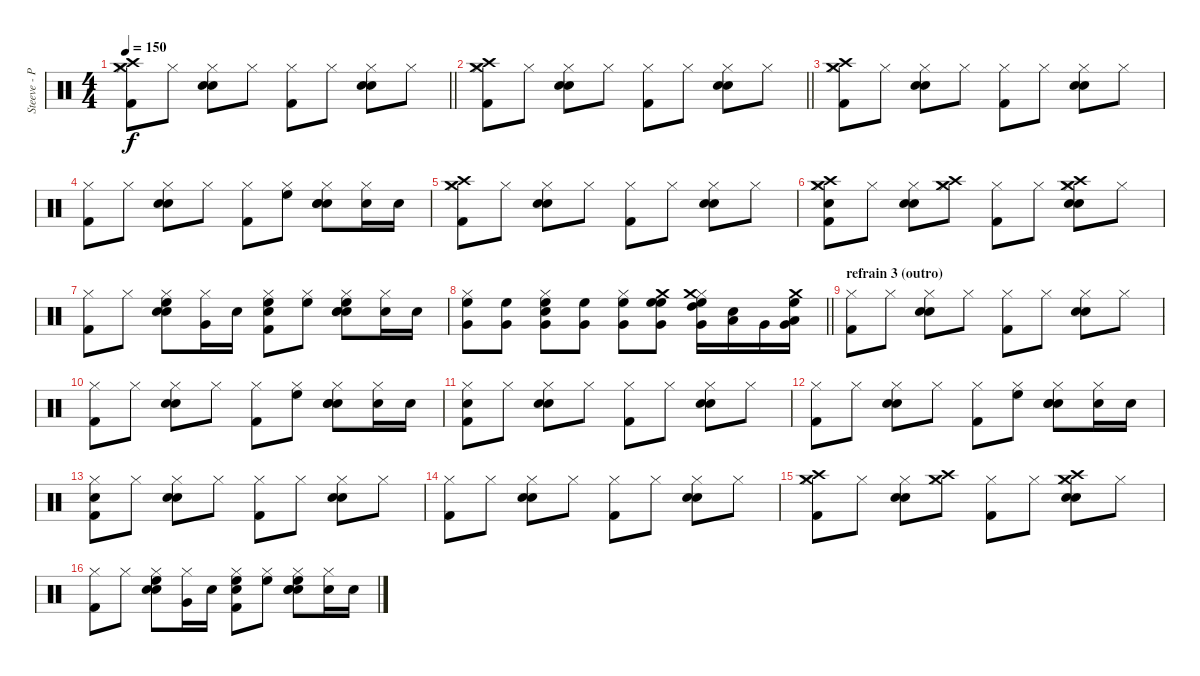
\track ("Steeve - Percussions" "Steeve - P") {instrument percussion}
\staff {score}
\articulation defaults
\ts (4 4)
\tempo 150
\clef neutral
\barLineRight lightlight
\ks c
("Hi-Hat (closed)" "Kick (hit) 2" "Crash medium (hit)" "Crash high (hit)").8{dy f} "Hi-Hat (closed)".8 ("Hi-Hat (closed)" "Snare (hit) 2" "Electric Snare (hit)").8 "Hi-Hat (closed)".8 ("Hi-Hat (closed)" "Kick (hit) 2").8 "Hi-Hat (closed)".8 ("Hi-Hat (closed)" "Snare (hit) 2" "Electric Snare (hit)").8 "Hi-Hat (closed)".8 |
\barLineRight lightlight
("Hi-Hat (closed)" "Kick (hit) 2" "Crash medium (hit)" "Crash high (hit)").8 "Hi-Hat (closed)".8 ("Hi-Hat (closed)" "Snare (hit) 2" "Electric Snare (hit)").8 "Hi-Hat (closed)".8 ("Hi-Hat (closed)" "Kick (hit) 2").8 "Hi-Hat (closed)".8 ("Hi-Hat (closed)" "Snare (hit) 2" "Electric Snare (hit)").8 "Hi-Hat (closed)".8 |
("Hi-Hat (closed)" "Kick (hit) 2" "Crash medium (hit)" "Crash high (hit)").8 "Hi-Hat (closed)".8 ("Hi-Hat (closed)" "Snare (hit) 2" "Electric Snare (hit)").8 "Hi-Hat (closed)".8 ("Hi-Hat (closed)" "Kick (hit) 2").8 "Hi-Hat (closed)".8 ("Hi-Hat (closed)" "Snare (hit) 2" "Electric Snare (hit)").8 "Hi-Hat (closed)".8 |
("Hi-Hat (closed)" "Kick (hit) 2").8 "Hi-Hat (closed)".8 ("Hi-Hat (closed)" "Snare (hit) 2" "Electric Snare (hit)").8 "Hi-Hat (closed)".8 ("Hi-Hat (closed)" "Kick (hit) 2").8 ("Hi-Hat (closed)" "High Floor Tom (hit)").8 ("Hi-Hat (closed)" "Snare (hit) 2" "Electric Snare (hit)" "Snare (hit) 2").8 ("Hi-Hat (closed)" "Snare (hit) 2").16 "Snare (hit) 2".16 |
("Hi-Hat (closed)" "Kick (hit) 2" "Crash medium (hit)" "Crash high (hit)").8 "Hi-Hat (closed)".8 ("Hi-Hat (closed)" "Snare (hit) 2" "Electric Snare (hit)").8 "Hi-Hat (closed)".8 ("Hi-Hat (closed)" "Kick (hit) 2").8 "Hi-Hat (closed)".8 ("Hi-Hat (closed)" "Snare (hit) 2" "Electric Snare (hit)").8 "Hi-Hat (closed)".8 |
("Hi-Hat (closed)" "Kick (hit) 2" "Crash high (hit)" "Snare (hit) 2" "Crash medium (hit)").8 "Hi-Hat (closed)".8 ("Hi-Hat (closed)" "Snare (hit) 2" "Electric Snare (hit)").8 ("Hi-Hat (closed)" "Crash high (hit)" "Crash medium (hit)").8 ("Hi-Hat (closed)" "Kick (hit) 2").8 "Hi-Hat (closed)".8 ("Hi-Hat (closed)" "Snare (hit) 2" "Electric Snare (hit)" "Crash high (hit)" "Crash medium (hit)").8 "Hi-Hat (closed)".8 |
("Hi-Hat (closed)" "Kick (hit) 2").8 "Hi-Hat (closed)".8 ("Hi-Hat (closed)" "Snare (hit) 2" "Electric Snare (hit)" "High Floor Tom (hit)").8 ("Hi-Hat (closed)" "Very Low Tom (hit)").16 "Snare (hit) 2".16 ("Hi-Hat (closed)" "Kick (hit) 2" "Snare (hit) 2" "High Floor Tom (hit)").8 ("Hi-Hat (closed)" "High Floor Tom (hit)").8 ("Hi-Hat (closed)" "Snare (hit) 2" "Electric Snare (hit)" "Snare (hit) 2" "High Floor Tom (hit)").8 ("Hi-Hat (closed)" "Snare (hit) 2").16 "Snare (hit) 2".16 |
\barLineRight lightlight
("Hi-Hat (closed)" "High Floor Tom (hit)" "Very Low Tom (hit)").8 ("High Floor Tom (hit)" "Very Low Tom (hit)").8 ("Hi-Hat (closed)" "High Floor Tom (hit)" "Snare (hit) 2" "Very Low Tom (hit)").8 ("High Floor Tom (hit)" "Very Low Tom (hit)").8 ("Hi-Hat (closed)" "High Floor Tom (hit)" "Very Low Tom (hit)").8 ("High Floor Tom (hit)" "High Floor Tom (hit)" "Very Low Tom (hit)" "Crash medium (hit)").8 ("Hi-Hat (closed)" "High Floor Tom (hit)" "High Tom (hit)" "Very Low Tom (hit)" "Crash medium (hit)").16 ("Low Tom (hit)" "Snare (hit) 2").16 "Very Low Tom (hit)".16 ("High Floor Tom (hit)" "Low Tom (hit)" "Very Low Tom (hit)" "Crash medium (hit)").16 |
\section ("" "refrain 3 (outro)")
("Hi-Hat (closed)" "Kick (hit) 2").8 "Hi-Hat (closed)".8 ("Hi-Hat (closed)" "Snare (hit) 2" "Electric Snare (hit)").8 "Hi-Hat (closed)".8 ("Hi-Hat (closed)" "Kick (hit) 2").8 "Hi-Hat (closed)".8 ("Hi-Hat (closed)" "Snare (hit) 2" "Electric Snare (hit)").8 "Hi-Hat (closed)".8 |
("Hi-Hat (closed)" "Kick (hit) 2").8 "Hi-Hat (closed)".8 ("Hi-Hat (closed)" "Snare (hit) 2" "Electric Snare (hit)").8 "Hi-Hat (closed)".8 ("Hi-Hat (closed)" "Kick (hit) 2").8 ("Hi-Hat (closed)" "High Floor Tom (hit)").8 ("Hi-Hat (closed)" "Snare (hit) 2" "Electric Snare (hit)" "Snare (hit) 2").8 ("Hi-Hat (closed)" "Snare (hit) 2").16 "Snare (hit) 2".16 |
("Hi-Hat (closed)" "Kick (hit) 2" "Snare (hit) 2").8 "Hi-Hat (closed)".8 ("Hi-Hat (closed)" "Snare (hit) 2" "Electric Snare (hit)").8 "Hi-Hat (closed)".8 ("Hi-Hat (closed)" "Kick (hit) 2").8 "Hi-Hat (closed)".8 ("Hi-Hat (closed)" "Snare (hit) 2" "Electric Snare (hit)").8 "Hi-Hat (closed)".8 |
("Hi-Hat (closed)" "Kick (hit) 2").8 "Hi-Hat (closed)".8 ("Hi-Hat (closed)" "Snare (hit) 2" "Electric Snare (hit)").8 "Hi-Hat (closed)".8 ("Hi-Hat (closed)" "Kick (hit) 2").8 ("Hi-Hat (closed)" "High Floor Tom (hit)").8 ("Hi-Hat (closed)" "Snare (hit) 2" "Electric Snare (hit)" "Snare (hit) 2").8 ("Hi-Hat (closed)" "Snare (hit) 2").16 "Snare (hit) 2".16 |
("Hi-Hat (closed)" "Kick (hit) 2" "Snare (hit) 2").8 "Hi-Hat (closed)".8 ("Hi-Hat (closed)" "Snare (hit) 2" "Electric Snare (hit)").8 "Hi-Hat (closed)".8 ("Hi-Hat (closed)" "Kick (hit) 2").8 "Hi-Hat (closed)".8 ("Hi-Hat (closed)" "Snare (hit) 2" "Electric Snare (hit)").8 "Hi-Hat (closed)".8 |
("Hi-Hat (closed)" "Kick (hit) 2").8 "Hi-Hat (closed)".8 ("Hi-Hat (closed)" "Snare (hit) 2" "Electric Snare (hit)").8 "Hi-Hat (closed)".8 ("Hi-Hat (closed)" "Kick (hit) 2").8 "Hi-Hat (closed)".8 ("Hi-Hat (closed)" "Snare (hit) 2" "Electric Snare (hit)").8 "Hi-Hat (closed)".8 |
("Hi-Hat (closed)" "Kick (hit) 2" "Crash high (hit)" "Crash medium (hit)").8 "Hi-Hat (closed)".8 ("Hi-Hat (closed)" "Snare (hit) 2" "Electric Snare (hit)").8 ("Hi-Hat (closed)" "Crash high (hit)" "Crash medium (hit)").8 ("Hi-Hat (closed)" "Kick (hit) 2").8 "Hi-Hat (closed)".8 ("Hi-Hat (closed)" "Snare (hit) 2" "Electric Snare (hit)" "Crash high (hit)" "Crash medium (hit)").8 "Hi-Hat (closed)".8 |
("Hi-Hat (closed)" "Kick (hit) 2").8 "Hi-Hat (closed)".8 ("Hi-Hat (closed)" "Snare (hit) 2" "Electric Snare (hit)" "High Floor Tom (hit)").8 ("Hi-Hat (closed)" "Very Low Tom (hit)").16 "Snare (hit) 2".16 ("Hi-Hat (closed)" "Kick (hit) 2" "Snare (hit) 2" "High Floor Tom (hit)").8 ("Hi-Hat (closed)" "High Floor Tom (hit)").8 ("Hi-Hat (closed)" "Snare (hit) 2" "Electric Snare (hit)" "Snare (hit) 2" "High Floor Tom (hit)").8 ("Hi-Hat (closed)" "Snare (hit) 2").16 "Snare (hit) 2".16
